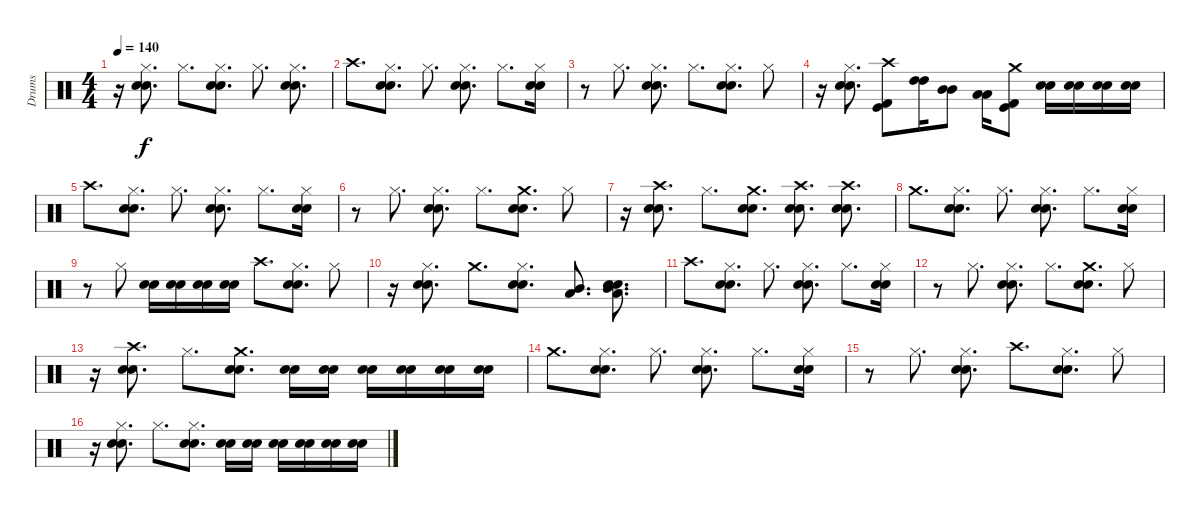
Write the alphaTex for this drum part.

\track ("Drums" "Drums") {instrument percussion}
\staff {score}
\articulation defaults
\ts (4 4)
\tempo 140
\clef neutral
\ks c
r.16{dy f} ("Hi-Hat (closed)" "Electric Snare (hit)" "Snare (hit) 2").8{d} "Hi-Hat (closed)".8{d} ("Hi-Hat (closed)" "Electric Snare (hit)" "Snare (hit) 2").8{d} "Hi-Hat (closed)".8{d} ("Hi-Hat (closed)" "Electric Snare (hit)" "Snare (hit) 2").8{d} |
"Crash high (hit)".8{d} ("Hi-Hat (closed)" "Electric Snare (hit)" "Snare (hit) 2").8{d} "Hi-Hat (closed)".8{d} ("Hi-Hat (closed)" "Electric Snare (hit)" "Snare (hit) 2").8{d} "Hi-Hat (closed)".8{d} ("Hi-Hat (closed)" "Electric Snare (hit)" "Snare (hit) 2").16 |
r.8 "Hi-Hat (closed)".8{d} ("Hi-Hat (closed)" "Electric Snare (hit)" "Snare (hit) 2").8{d} "Hi-Hat (closed)".8{d} ("Hi-Hat (closed)" "Electric Snare (hit)" "Snare (hit) 2").8{d} "Hi-Hat (closed)".8 |
r.16 ("Hi-Hat (closed)" "Electric Snare (hit)" "Snare (hit) 2").8{d} ("Crash high (hit)" "Kick (hit) 2" "Kick (hit)").8 ("High Tom (hit)" "High Tom (hit)").16 ("Mid Tom (hit)" "Mid Tom (hit)").8 ("Low Tom (hit)" "Low Tom (hit)").16 ("Crash medium (hit)" "Kick (hit) 2" "Kick (hit)").8 ("Electric Snare (hit)" "Snare (hit) 2").16 ("Electric Snare (hit)" "Snare (hit) 2").16 ("Electric Snare (hit)" "Snare (hit) 2").16 ("Electric Snare (hit)" "Snare (hit) 2").16 |
"Crash high (hit)".8{d} ("Hi-Hat (closed)" "Electric Snare (hit)" "Snare (hit) 2").8{d} "Hi-Hat (closed)".8{d} ("Hi-Hat (closed)" "Electric Snare (hit)" "Snare (hit) 2").8{d} "Hi-Hat (closed)".8{d} ("Hi-Hat (closed)" "Electric Snare (hit)" "Snare (hit) 2").16 |
r.8 "Hi-Hat (closed)".8{d} ("Hi-Hat (closed)" "Electric Snare (hit)" "Snare (hit) 2").8{d} "Hi-Hat (closed)".8{d} ("Crash medium (hit)" "Electric Snare (hit)" "Snare (hit) 2").8{d} "Hi-Hat (closed)".8 |
r.16 ("Crash high (hit)" "Electric Snare (hit)" "Snare (hit) 2").8{d} "Hi-Hat (closed)".8{d} ("Crash medium (hit)" "Electric Snare (hit)" "Snare (hit) 2").8{d} ("Crash high (hit)" "Electric Snare (hit)" "Snare (hit) 2").8{d} ("Crash high (hit)" "Electric Snare (hit)" "Snare (hit) 2").8{d} |
"Crash medium (hit)".8{d} ("Hi-Hat (closed)" "Electric Snare (hit)" "Snare (hit) 2").8{d} "Hi-Hat (closed)".8{d} ("Hi-Hat (closed)" "Electric Snare (hit)" "Snare (hit) 2").8{d} "Hi-Hat (closed)".8{d} ("Hi-Hat (closed)" "Electric Snare (hit)" "Snare (hit) 2").16 |
r.8 "Hi-Hat (closed)".8 ("Electric Snare (hit)" "Snare (hit) 2").16 ("Electric Snare (hit)" "Snare (hit) 2").16 ("Electric Snare (hit)" "Snare (hit) 2").16 ("Electric Snare (hit)" "Snare (hit) 2").16 "Crash high (hit)".8{d} ("Hi-Hat (closed)" "Electric Snare (hit)" "Snare (hit) 2").8{d} "Hi-Hat (closed)".8 |
r.16 ("Hi-Hat (closed)" "Electric Snare (hit)" "Snare (hit) 2").8{d} "Crash medium (hit)".8{d} ("Hi-Hat (closed)" "Electric Snare (hit)" "Snare (hit) 2").8{d} ("Mid Tom (hit)" "Low Tom (hit)").8{d bu 60} ("Mid Tom (hit)" "Low Tom (hit)" "Electric Snare (hit)" "Snare (hit) 2").8{d} |
"Crash high (hit)".8{d} ("Hi-Hat (closed)" "Electric Snare (hit)" "Snare (hit) 2").8{d} "Hi-Hat (closed)".8{d} ("Hi-Hat (closed)" "Electric Snare (hit)" "Snare (hit) 2").8{d} "Hi-Hat (closed)".8{d} ("Hi-Hat (closed)" "Electric Snare (hit)" "Snare (hit) 2").16 |
r.8 "Hi-Hat (closed)".8{d} ("Hi-Hat (closed)" "Electric Snare (hit)" "Snare (hit) 2").8{d} "Hi-Hat (closed)".8{d} ("Crash medium (hit)" "Electric Snare (hit)" "Snare (hit) 2").8{d} "Hi-Hat (closed)".8 |
r.16 ("Crash high (hit)" "Electric Snare (hit)" "Snare (hit) 2").8{d} "Hi-Hat (closed)".8{d} ("Crash medium (hit)" "Electric Snare (hit)" "Snare (hit) 2").8{d} ("Electric Snare (hit)" "Snare (hit) 2").16 ("Electric Snare (hit)" "Snare (hit) 2").16 ("Electric Snare (hit)" "Snare (hit) 2").16 ("Electric Snare (hit)" "Snare (hit) 2").16 ("Electric Snare (hit)" "Snare (hit) 2").16 ("Electric Snare (hit)" "Snare (hit) 2").16 |
"Crash medium (hit)".8{d} ("Hi-Hat (closed)" "Electric Snare (hit)" "Snare (hit) 2").8{d} "Hi-Hat (closed)".8{d} ("Hi-Hat (closed)" "Electric Snare (hit)" "Snare (hit) 2").8{d} "Hi-Hat (closed)".8{d} ("Hi-Hat (closed)" "Electric Snare (hit)" "Snare (hit) 2").16 |
r.8 "Hi-Hat (closed)".8{d} ("Hi-Hat (closed)" "Electric Snare (hit)" "Snare (hit) 2").8{d} "Crash high (hit)".8{d} ("Hi-Hat (closed)" "Electric Snare (hit)" "Snare (hit) 2").8{d} "Hi-Hat (closed)".8 |
r.16 ("Hi-Hat (closed)" "Electric Snare (hit)" "Snare (hit) 2").8{d} "Hi-Hat (closed)".8{d} ("Hi-Hat (closed)" "Electric Snare (hit)" "Snare (hit) 2").8{d} ("Electric Snare (hit)" "Snare (hit) 2").16 ("Electric Snare (hit)" "Snare (hit) 2").16 ("Electric Snare (hit)" "Snare (hit) 2").16 ("Electric Snare (hit)" "Snare (hit) 2").16 ("Electric Snare (hit)" "Snare (hit) 2").16 ("Electric Snare (hit)" "Snare (hit) 2").16
